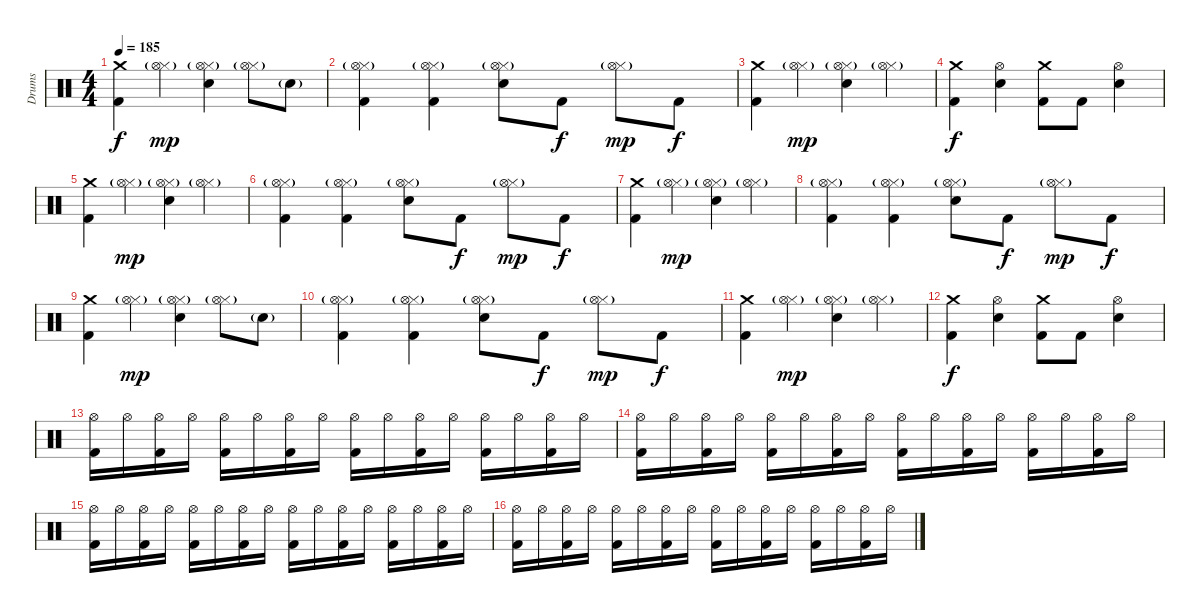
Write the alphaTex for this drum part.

\track ("Drums" "Drums") {instrument percussion}
\staff {score}
\articulation defaults
\ts (4 4)
\tempo 185
\clef neutral
\ks c
("Crash medium (hit)" "Kick (hit) 2").4{dy f} ("Hi-Hat (closed)" "Hi-Hat (open)"{g}).4{dy mp} ("Hi-Hat (closed)" "Hi-Hat (open)"{g} "Electric Snare (hit)").4 ("Hi-Hat (closed)" "Hi-Hat (open)"{g}).8 "Electric Snare (hit)"{g}.8 |
("Hi-Hat (closed)" "Hi-Hat (open)"{g} "Kick (hit) 2").4 ("Hi-Hat (closed)" "Hi-Hat (open)"{g} "Kick (hit) 2").4 ("Hi-Hat (closed)" "Hi-Hat (open)"{g} "Electric Snare (hit)").8 "Kick (hit) 2".8{dy f} ("Hi-Hat (closed)" "Hi-Hat (open)"{g}).8{dy mp} "Kick (hit) 2".8{dy f} |
("Crash medium (hit)" "Kick (hit) 2").4 ("Hi-Hat (closed)" "Hi-Hat (open)"{g}).4{dy mp} ("Hi-Hat (closed)" "Hi-Hat (open)"{g} "Electric Snare (hit)").4 ("Hi-Hat (closed)" "Hi-Hat (open)"{g}).4 |
("Crash medium (hit)" "Kick (hit) 2").4{dy f} ("Hi-Hat (open)" "Electric Snare (hit)").4 ("Crash medium (hit)" "Kick (hit) 2").8 "Kick (hit) 2".8 ("Hi-Hat (open)" "Electric Snare (hit)").4 |
("Crash medium (hit)" "Kick (hit) 2").4 ("Hi-Hat (closed)" "Hi-Hat (open)"{g}).4{dy mp} ("Hi-Hat (closed)" "Hi-Hat (open)"{g} "Electric Snare (hit)").4 ("Hi-Hat (closed)" "Hi-Hat (open)"{g}).4 |
("Hi-Hat (closed)" "Hi-Hat (open)"{g} "Kick (hit) 2").4 ("Hi-Hat (closed)" "Hi-Hat (open)"{g} "Kick (hit) 2").4 ("Hi-Hat (closed)" "Hi-Hat (open)"{g} "Electric Snare (hit)").8 "Kick (hit) 2".8{dy f} ("Hi-Hat (closed)" "Hi-Hat (open)"{g}).8{dy mp} "Kick (hit) 2".8{dy f} |
("Crash medium (hit)" "Kick (hit) 2").4 ("Hi-Hat (closed)" "Hi-Hat (open)"{g}).4{dy mp} ("Hi-Hat (closed)" "Hi-Hat (open)"{g} "Electric Snare (hit)").4 ("Hi-Hat (closed)" "Hi-Hat (open)"{g}).4 |
("Hi-Hat (closed)" "Hi-Hat (open)"{g} "Kick (hit) 2").4 ("Hi-Hat (closed)" "Hi-Hat (open)"{g} "Kick (hit) 2").4 ("Hi-Hat (closed)" "Hi-Hat (open)"{g} "Electric Snare (hit)").8 "Kick (hit) 2".8{dy f} ("Hi-Hat (closed)" "Hi-Hat (open)"{g}).8{dy mp} "Kick (hit) 2".8{dy f} |
("Crash medium (hit)" "Kick (hit) 2").4 ("Hi-Hat (closed)" "Hi-Hat (open)"{g}).4{dy mp} ("Hi-Hat (closed)" "Hi-Hat (open)"{g} "Electric Snare (hit)").4 ("Hi-Hat (closed)" "Hi-Hat (open)"{g}).8 "Electric Snare (hit)"{g}.8 |
("Hi-Hat (closed)" "Hi-Hat (open)"{g} "Kick (hit) 2").4 ("Hi-Hat (closed)" "Hi-Hat (open)"{g} "Kick (hit) 2").4 ("Hi-Hat (closed)" "Hi-Hat (open)"{g} "Electric Snare (hit)").8 "Kick (hit) 2".8{dy f} ("Hi-Hat (closed)" "Hi-Hat (open)"{g}).8{dy mp} "Kick (hit) 2".8{dy f} |
("Crash medium (hit)" "Kick (hit) 2").4 ("Hi-Hat (closed)" "Hi-Hat (open)"{g}).4{dy mp} ("Hi-Hat (closed)" "Hi-Hat (open)"{g} "Electric Snare (hit)").4 ("Hi-Hat (closed)" "Hi-Hat (open)"{g}).4 |
("Crash medium (hit)" "Kick (hit) 2").4{dy f} ("Hi-Hat (open)" "Electric Snare (hit)").4 ("Crash medium (hit)" "Kick (hit) 2").8 "Kick (hit) 2".8 ("Hi-Hat (open)" "Electric Snare (hit)").4 |
("Hi-Hat (open)" "Kick (hit) 2").16 "Hi-Hat (open)".16 ("Hi-Hat (open)" "Kick (hit) 2").16 "Hi-Hat (open)".16 ("Hi-Hat (open)" "Kick (hit) 2").16 "Hi-Hat (open)".16 ("Hi-Hat (open)" "Kick (hit) 2").16 "Hi-Hat (open)".16 ("Hi-Hat (open)" "Kick (hit) 2").16 "Hi-Hat (open)".16 ("Hi-Hat (open)" "Kick (hit) 2").16 "Hi-Hat (open)".16 ("Hi-Hat (open)" "Kick (hit) 2").16 "Hi-Hat (open)".16 ("Hi-Hat (open)" "Kick (hit) 2").16 "Hi-Hat (open)".16 |
("Hi-Hat (open)" "Kick (hit) 2").16 "Hi-Hat (open)".16 ("Hi-Hat (open)" "Kick (hit) 2").16 "Hi-Hat (open)".16 ("Hi-Hat (open)" "Kick (hit) 2").16 "Hi-Hat (open)".16 ("Hi-Hat (open)" "Kick (hit) 2").16 "Hi-Hat (open)".16 ("Hi-Hat (open)" "Kick (hit) 2").16 "Hi-Hat (open)".16 ("Hi-Hat (open)" "Kick (hit) 2").16 "Hi-Hat (open)".16 ("Hi-Hat (open)" "Kick (hit) 2").16 "Hi-Hat (open)".16 ("Hi-Hat (open)" "Kick (hit) 2").16 "Hi-Hat (open)".16 |
("Hi-Hat (open)" "Kick (hit) 2").16 "Hi-Hat (open)".16 ("Hi-Hat (open)" "Kick (hit) 2").16 "Hi-Hat (open)".16 ("Hi-Hat (open)" "Kick (hit) 2").16 "Hi-Hat (open)".16 ("Hi-Hat (open)" "Kick (hit) 2").16 "Hi-Hat (open)".16 ("Hi-Hat (open)" "Kick (hit) 2").16 "Hi-Hat (open)".16 ("Hi-Hat (open)" "Kick (hit) 2").16 "Hi-Hat (open)".16 ("Hi-Hat (open)" "Kick (hit) 2").16 "Hi-Hat (open)".16 ("Hi-Hat (open)" "Kick (hit) 2").16 "Hi-Hat (open)".16 |
("Hi-Hat (open)" "Kick (hit) 2").16 "Hi-Hat (open)".16 ("Hi-Hat (open)" "Kick (hit) 2").16 "Hi-Hat (open)".16 ("Hi-Hat (open)" "Kick (hit) 2").16 "Hi-Hat (open)".16 ("Hi-Hat (open)" "Kick (hit) 2").16 "Hi-Hat (open)".16 ("Hi-Hat (open)" "Kick (hit) 2").16 "Hi-Hat (open)".16 ("Hi-Hat (open)" "Kick (hit) 2").16 "Hi-Hat (open)".16 ("Hi-Hat (open)" "Kick (hit) 2").16 "Hi-Hat (open)".16 ("Hi-Hat (open)" "Kick (hit) 2").16 "Hi-Hat (open)".16
